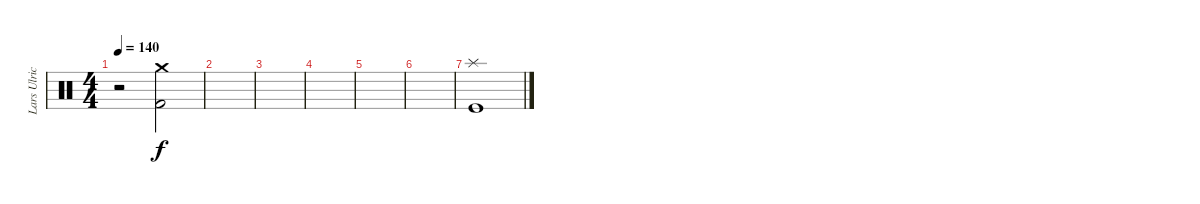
\track ("Lars Ulrich" "Lars Ulric") {instrument percussion}
\staff {score}
\articulation defaults
\ts (4 4)
\tempo 140
\clef neutral
\ks c
r.2{dy f} ("Crash medium (hit)" "Kick (hit) 2").2 |
|
|
|
|
|
("Splash (hit)" "Kick (hit)").1
